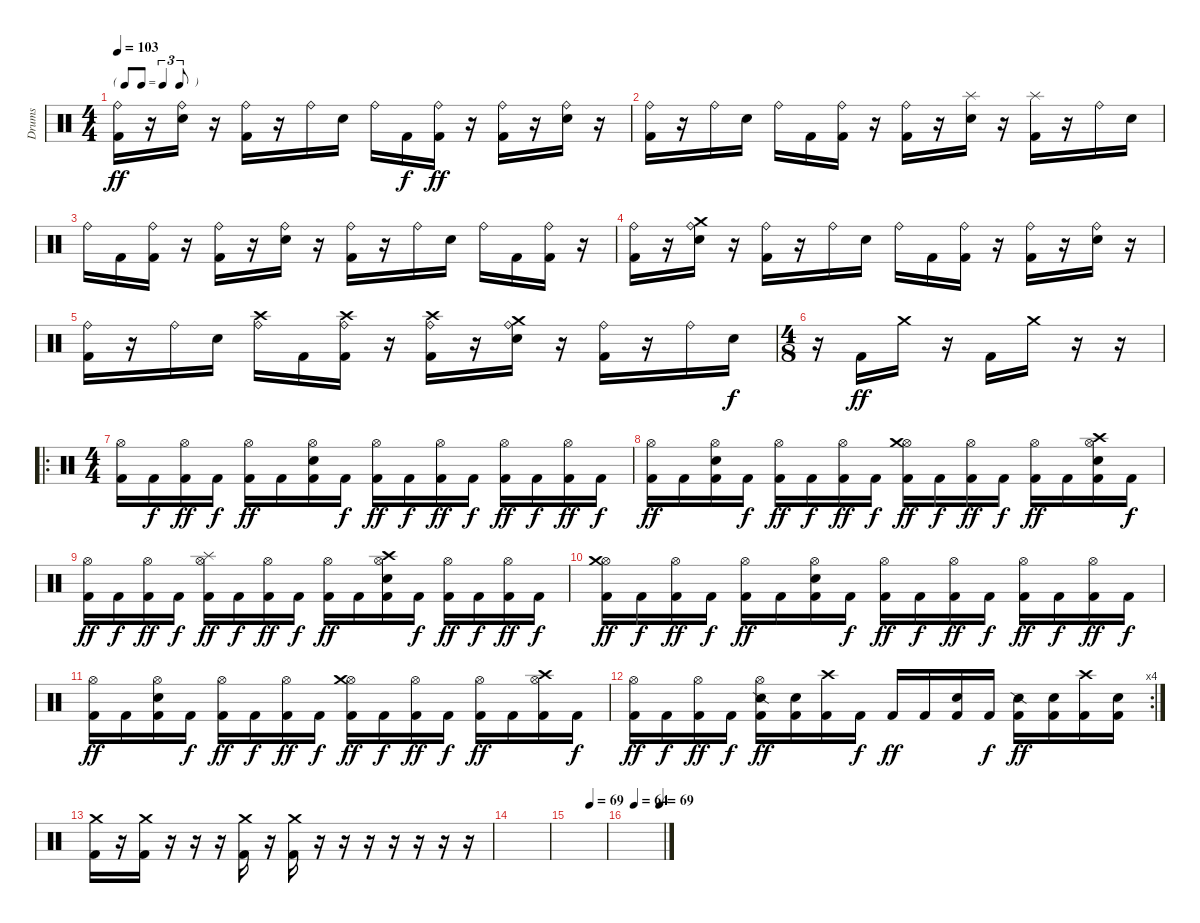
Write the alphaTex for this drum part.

\track ("Drums" "Drums") {instrument percussion}
\staff {score}
\articulation defaults
\ts (4 4)
\tf triplet8th
\tempo 103
\clef neutral
\ks c
("Ride (bell)" "Kick (hit) 2").16{dy ff} r.16 ("Ride (bell)" "Electric Snare (hit)").16 r.16 ("Ride (bell)" "Kick (hit) 2").16 r.16 "Ride (bell)".16 "Electric Snare (hit)".16 "Ride (bell)".16 "Kick (hit) 2".16{dy f} ("Ride (bell)" "Kick (hit) 2").16{dy ff} r.16 ("Ride (bell)" "Kick (hit) 2").16 r.16 ("Ride (bell)" "Electric Snare (hit)").16 r.16 |
("Ride (bell)" "Kick (hit) 2").16 r.16 "Ride (bell)".16 "Electric Snare (hit)".16 "Ride (bell)".16 "Kick (hit) 2".16 ("Ride (bell)" "Kick (hit) 2").16 r.16 ("Ride (bell)" "Kick (hit) 2").16 r.16 ("Splash (hit)" "Electric Snare (hit)").16 r.16 ("Splash (hit)" "Kick (hit) 2").16 r.16 "Ride (bell)".16 "Electric Snare (hit)".16 |
"Ride (bell)".16 "Kick (hit) 2".16 ("Ride (bell)" "Kick (hit) 2").16 r.16 ("Ride (bell)" "Kick (hit) 2").16 r.16 ("Ride (bell)" "Electric Snare (hit)").16 r.16 ("Ride (bell)" "Kick (hit) 2").16 r.16 "Ride (bell)".16 "Electric Snare (hit)".16 "Ride (bell)".16 "Kick (hit) 2".16 ("Ride (bell)" "Kick (hit) 2").16 r.16 |
("Ride (bell)" "Kick (hit) 2").16 r.16 ("Ride (bell)" "Crash medium (hit)" "Electric Snare (hit)").16 r.16 ("Ride (bell)" "Kick (hit) 2").16 r.16 "Ride (bell)".16 "Electric Snare (hit)".16 "Ride (bell)".16 "Kick (hit) 2".16 ("Ride (bell)" "Kick (hit) 2").16 r.16 ("Ride (bell)" "Kick (hit) 2").16 r.16 ("Ride (bell)" "Electric Snare (hit)").16 r.16 |
("Ride (bell)" "Kick (hit) 2").16 r.16 "Ride (bell)".16 "Electric Snare (hit)".16 ("Ride (bell)" "Crash high (hit)").16 "Kick (hit) 2".16 ("Ride (bell)" "Crash high (hit)" "Kick (hit) 2").16 r.16 ("Ride (bell)" "Crash high (hit)" "Kick (hit) 2").16 r.16 ("Ride (bell)" "Crash medium (hit)" "Electric Snare (hit)").16 r.16 ("Ride (bell)" "Kick (hit) 2").16 r.16 "Ride (bell)".16 "Electric Snare (hit)".16{dy f} |
\ts (4 8)
r.16 "Kick (hit) 2".16{dy ff} "Crash medium (hit)".16 r.16 "Kick (hit) 2".16 "Crash medium (hit)".16 r.16 r.16 |
\ro
\ts (4 4)
("Hi-Hat (open)" "Kick (hit) 2").16 "Kick (hit) 2".16{dy f} ("Hi-Hat (open)" "Kick (hit) 2").16{dy ff} "Kick (hit) 2".16{dy f} ("Hi-Hat (open)" "Kick (hit) 2").16{dy ff} "Kick (hit) 2".16 ("Hi-Hat (open)" "Electric Snare (hit)" "Kick (hit) 2").16 "Kick (hit) 2".16{dy f} ("Hi-Hat (open)" "Kick (hit) 2").16{dy ff} "Kick (hit) 2".16{dy f} ("Hi-Hat (open)" "Kick (hit) 2").16{dy ff} "Kick (hit) 2".16{dy f} ("Hi-Hat (open)" "Kick (hit) 2").16{dy ff} "Kick (hit) 2".16{dy f} ("Hi-Hat (open)" "Kick (hit) 2").16{dy ff} "Kick (hit) 2".16{dy f} |
("Hi-Hat (open)" "Kick (hit) 2").16{dy ff} "Kick (hit) 2".16 ("Hi-Hat (open)" "Electric Snare (hit)" "Kick (hit) 2").16 "Kick (hit) 2".16{dy f} ("Hi-Hat (open)" "Kick (hit) 2").16{dy ff} "Kick (hit) 2".16{dy f} ("Hi-Hat (open)" "Kick (hit) 2").16{dy ff} "Kick (hit) 2".16{dy f} ("Hi-Hat (open)" "Crash medium (hit)" "Kick (hit) 2").16{dy ff} "Kick (hit) 2".16{dy f} ("Hi-Hat (open)" "Kick (hit) 2").16{dy ff} "Kick (hit) 2".16{dy f} ("Hi-Hat (open)" "Kick (hit) 2").16{dy ff} "Kick (hit) 2".16 ("Hi-Hat (open)" "Crash high (hit)" "Electric Snare (hit)" "Kick (hit) 2").16 "Kick (hit) 2".16{dy f} |
("Hi-Hat (open)" "Kick (hit) 2").16{dy ff} "Kick (hit) 2".16{dy f} ("Hi-Hat (open)" "Kick (hit) 2").16{dy ff} "Kick (hit) 2".16{dy f} ("Hi-Hat (open)" "Splash (hit)" "Kick (hit) 2").16{dy ff} "Kick (hit) 2".16{dy f} ("Hi-Hat (open)" "Kick (hit) 2").16{dy ff} "Kick (hit) 2".16{dy f} ("Hi-Hat (open)" "Kick (hit) 2").16{dy ff} "Kick (hit) 2".16 ("Hi-Hat (open)" "Crash high (hit)" "Electric Snare (hit)" "Kick (hit) 2").16 "Kick (hit) 2".16{dy f} ("Hi-Hat (open)" "Kick (hit) 2").16{dy ff} "Kick (hit) 2".16{dy f} ("Hi-Hat (open)" "Kick (hit) 2").16{dy ff} "Kick (hit) 2".16{dy f} |
("Hi-Hat (open)" "Crash medium (hit)" "Kick (hit) 2").16{dy ff} "Kick (hit) 2".16{dy f} ("Hi-Hat (open)" "Kick (hit) 2").16{dy ff} "Kick (hit) 2".16{dy f} ("Hi-Hat (open)" "Kick (hit) 2").16{dy ff} "Kick (hit) 2".16 ("Hi-Hat (open)" "Electric Snare (hit)" "Kick (hit) 2").16 "Kick (hit) 2".16{dy f} ("Hi-Hat (open)" "Kick (hit) 2").16{dy ff} "Kick (hit) 2".16{dy f} ("Hi-Hat (open)" "Kick (hit) 2").16{dy ff} "Kick (hit) 2".16{dy f} ("Hi-Hat (open)" "Kick (hit) 2").16{dy ff} "Kick (hit) 2".16{dy f} ("Hi-Hat (open)" "Kick (hit) 2").16{dy ff} "Kick (hit) 2".16{dy f} |
("Hi-Hat (open)" "Kick (hit) 2").16{dy ff} "Kick (hit) 2".16 ("Hi-Hat (open)" "Electric Snare (hit)" "Kick (hit) 2").16 "Kick (hit) 2".16{dy f} ("Hi-Hat (open)" "Kick (hit) 2").16{dy ff} "Kick (hit) 2".16{dy f} ("Hi-Hat (open)" "Kick (hit) 2").16{dy ff} "Kick (hit) 2".16{dy f} ("Hi-Hat (open)" "Crash medium (hit)" "Kick (hit) 2").16{dy ff} "Kick (hit) 2".16{dy f} ("Hi-Hat (open)" "Kick (hit) 2").16{dy ff} "Kick (hit) 2".16{dy f} ("Hi-Hat (open)" "Kick (hit) 2").16{dy ff} "Kick (hit) 2".16 ("Hi-Hat (open)" "Crash high (hit)" "Kick (hit) 2").16 "Kick (hit) 2".16{dy f} |
\rc 4
("Hi-Hat (open)" "Kick (hit) 2").16{dy ff} "Kick (hit) 2".16{dy f} ("Hi-Hat (open)" "Kick (hit) 2").16{dy ff} "Kick (hit) 2".16{dy f} ("Hi-Hat (open)" "Snare (side stick) 2" "Kick (hit) 2").16{dy ff} ("Electric Snare (hit)" "Kick (hit) 2").16 ("Crash high (hit)" "Kick (hit) 2").16 "Kick (hit) 2".16{dy f} "Kick (hit) 2".16{dy ff} "Kick (hit) 2".16 ("Electric Snare (hit)" "Kick (hit) 2").16 "Kick (hit) 2".16{dy f} ("Snare (side stick) 2" "Kick (hit) 2").16{dy ff} ("Electric Snare (hit)" "Kick (hit) 2").16 ("Crash high (hit)" "Kick (hit) 2").16 ("Electric Snare (hit)" "Kick (hit) 2").16 |
("Crash medium (hit)" "Kick (hit) 2").16 r.16 ("Crash medium (hit)" "Kick (hit) 2").16 r.16 r.16 r.16 ("Crash medium (hit)" "Kick (hit) 2").16 r.16 ("Crash medium (hit)" "Kick (hit) 2").16 r.16 r.16 r.16 r.16 r.16 r.16 r.16 |
|
\tempo (69 0.5625)
|
\tempo (64 0.21875)
\tempo (69 0.90625)
